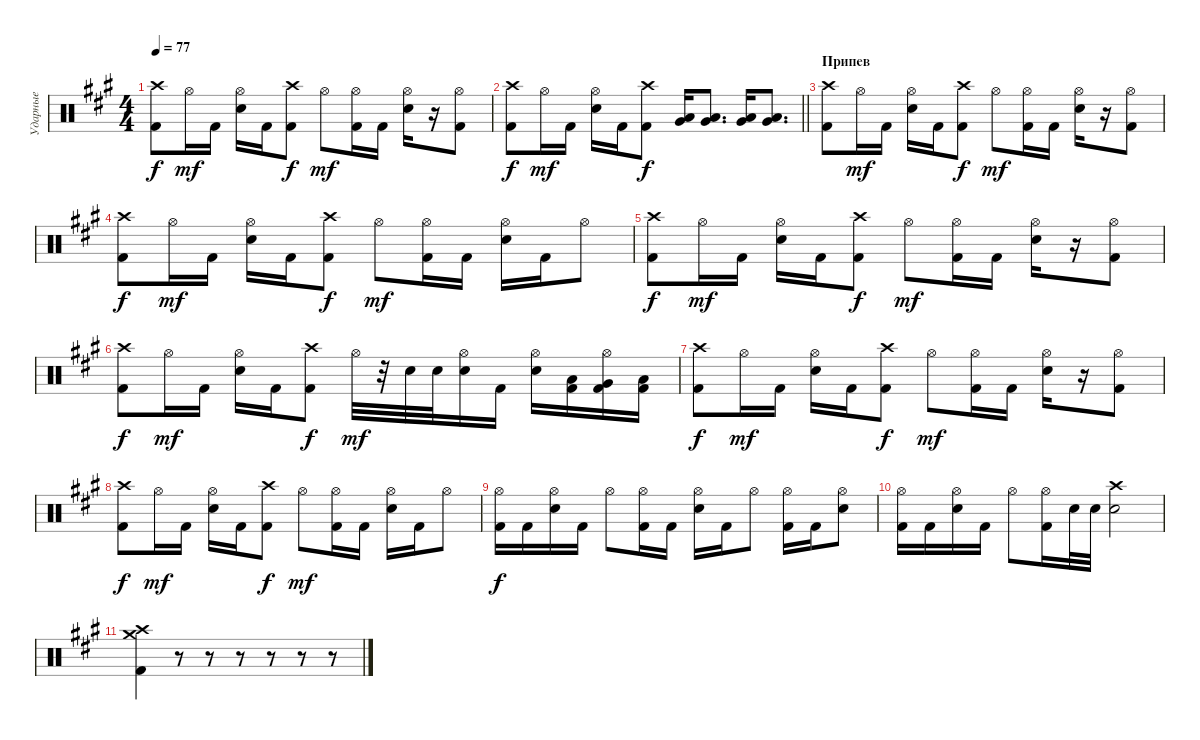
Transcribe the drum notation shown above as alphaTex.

\track ("Ударные" "Ударные") {instrument percussion}
\staff {score}
\articulation defaults
\ts (4 4)
\tempo 77
\clef neutral
\ks f#minor
("Crash high (hit)" "Kick (hit) 2").8{dy f} "Hi-Hat (open)".16{dy mf} "Kick (hit) 2".16 ("Hi-Hat (open)" "Electric Snare (hit)").16 "Kick (hit) 2".16 ("Crash high (hit)" "Kick (hit) 2").8{dy f} "Hi-Hat (open)".8{dy mf} ("Hi-Hat (open)" "Kick (hit) 2").16 "Kick (hit) 2".16 ("Hi-Hat (open)" "Electric Snare (hit)").16 r.16 ("Hi-Hat (open)" "Kick (hit) 2").8 |
\barLineRight lightlight
("Crash high (hit)" "Kick (hit) 2").8{dy f} "Hi-Hat (open)".16{dy mf} "Kick (hit) 2".16 ("Hi-Hat (open)" "Electric Snare (hit)").16 "Kick (hit) 2".16 ("Crash high (hit)" "Kick (hit) 2").8{dy f} ("Low Tom (hit)" "Very Low Tom (hit)").16 ("Low Tom (hit)" "Very Low Tom (hit)").8{d} ("Very Low Tom (hit)" "Low Floor Tom (hit)").16 ("Very Low Tom (hit)" "Low Floor Tom (hit)").8{d} |
\section ("" "Припев")
("Crash high (hit)" "Kick (hit) 2").8 "Hi-Hat (open)".16{dy mf} "Kick (hit) 2".16 ("Hi-Hat (open)" "Electric Snare (hit)").16 "Kick (hit) 2".16 ("Crash high (hit)" "Kick (hit) 2").8{dy f} "Hi-Hat (open)".8{dy mf} ("Hi-Hat (open)" "Kick (hit) 2").16 "Kick (hit) 2".16 ("Hi-Hat (open)" "Electric Snare (hit)").16 r.16 ("Hi-Hat (open)" "Kick (hit) 2").8 |
("Crash high (hit)" "Kick (hit) 2").8{dy f} "Hi-Hat (open)".16{dy mf} "Kick (hit) 2".16 ("Hi-Hat (open)" "Electric Snare (hit)").16 "Kick (hit) 2".16 ("Crash high (hit)" "Kick (hit) 2").8{dy f} "Hi-Hat (open)".8{dy mf} ("Hi-Hat (open)" "Kick (hit) 2").16 "Kick (hit) 2".16 ("Hi-Hat (open)" "Electric Snare (hit)").16 "Kick (hit) 2".16 "Hi-Hat (open)".8 |
("Crash high (hit)" "Kick (hit) 2").8{dy f} "Hi-Hat (open)".16{dy mf} "Kick (hit) 2".16 ("Hi-Hat (open)" "Electric Snare (hit)").16 "Kick (hit) 2".16 ("Crash high (hit)" "Kick (hit) 2").8{dy f} "Hi-Hat (open)".8{dy mf} ("Hi-Hat (open)" "Kick (hit) 2").16 "Kick (hit) 2".16 ("Hi-Hat (open)" "Electric Snare (hit)").16 r.16 ("Hi-Hat (open)" "Kick (hit) 2").8 |
("Crash high (hit)" "Kick (hit) 2").8{dy f} "Hi-Hat (open)".16{dy mf} "Kick (hit) 2".16 ("Hi-Hat (open)" "Electric Snare (hit)").16 "Kick (hit) 2".16 ("Crash high (hit)" "Kick (hit) 2").8{dy f} "Hi-Hat (open)".32{dy mf} r.32 "Electric Snare (hit)".32 "Electric Snare (hit)".32 ("Hi-Hat (open)" "Electric Snare (hit)").16 "Kick (hit) 2".16 ("Hi-Hat (open)" "Electric Snare (hit)").16 ("Low Tom (hit)" "Kick (hit) 2").16 ("Hi-Hat (open)" "Very Low Tom (hit)" "Kick (hit) 2").16 ("Low Floor Tom (hit)" "Kick (hit) 2").16 |
("Crash high (hit)" "Kick (hit) 2").8{dy f} "Hi-Hat (open)".16{dy mf} "Kick (hit) 2".16 ("Hi-Hat (open)" "Electric Snare (hit)").16 "Kick (hit) 2".16 ("Crash high (hit)" "Kick (hit) 2").8{dy f} "Hi-Hat (open)".8{dy mf} ("Hi-Hat (open)" "Kick (hit) 2").16 "Kick (hit) 2".16 ("Hi-Hat (open)" "Electric Snare (hit)").16 r.16 ("Hi-Hat (open)" "Kick (hit) 2").8 |
("Crash high (hit)" "Kick (hit) 2").8{dy f} "Hi-Hat (open)".16{dy mf} "Kick (hit) 2".16 ("Hi-Hat (open)" "Electric Snare (hit)").16 "Kick (hit) 2".16 ("Crash high (hit)" "Kick (hit) 2").8{dy f} "Hi-Hat (open)".8{dy mf} ("Hi-Hat (open)" "Kick (hit) 2").16 "Kick (hit) 2".16 ("Hi-Hat (open)" "Electric Snare (hit)").16 "Kick (hit) 2".16 "Hi-Hat (open)".8 |
("Hi-Hat (open)" "Kick (hit) 2").16{dy f} "Kick (hit) 2".16 ("Hi-Hat (open)" "Electric Snare (hit)").16 "Kick (hit) 2".16 "Hi-Hat (open)".8 ("Hi-Hat (open)" "Kick (hit) 2").16 "Kick (hit) 2".16 ("Hi-Hat (open)" "Electric Snare (hit)").16 "Kick (hit) 2".16 "Hi-Hat (open)".8 ("Hi-Hat (open)" "Kick (hit) 2").16 "Kick (hit) 2".16 ("Hi-Hat (open)" "Electric Snare (hit)").8 |
("Hi-Hat (open)" "Kick (hit) 2").16 "Kick (hit) 2".16 ("Hi-Hat (open)" "Electric Snare (hit)").16 "Kick (hit) 2".16 "Hi-Hat (open)".8 ("Hi-Hat (open)" "Kick (hit) 2").16 "Electric Snare (hit)".32 "Electric Snare (hit)".32 ("Crash high (hit)" "Electric Snare (hit)").2 |
("Crash high (hit)" "Crash medium (hit)" "Kick (hit) 2").4 r.8 r.8 r.8 r.8 r.8 r.8
